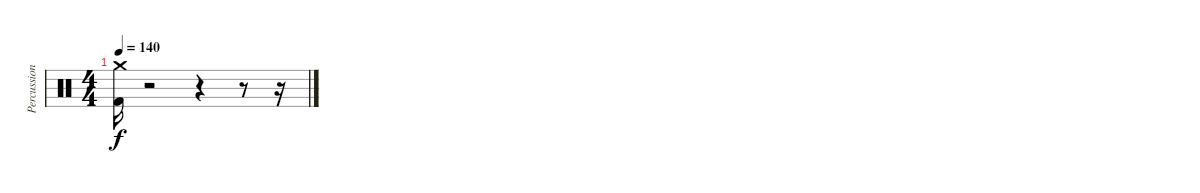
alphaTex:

\track ("Percussion" "Percussion") {instrument percussion}
\staff {score}
\articulation defaults
\ts (4 4)
\tempo 140
\clef neutral
\ks c
("Crash medium (hit)" "Kick (hit) 2").16{dy f} r.2 r.4 r.8 r.16
